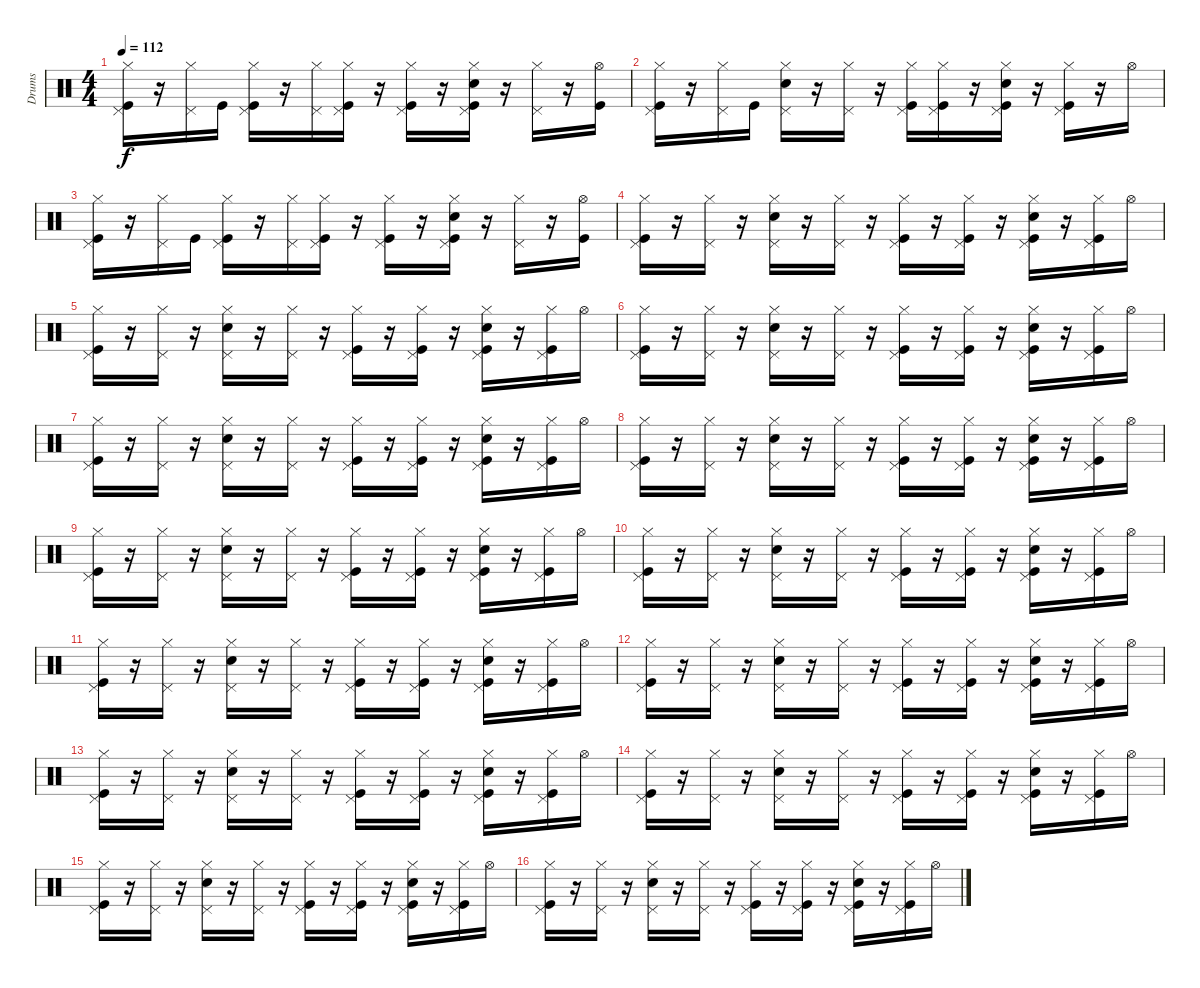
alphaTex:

\track ("Drums" "Drums") {instrument percussion}
\staff {score}
\articulation defaults
\ts (4 4)
\tempo 112
\clef neutral
\ks c
("Hi-Hat (closed)" "Pedal Hi-Hat (hit)" "Kick (hit)").16{dy f} r.16 ("Hi-Hat (closed)" "Pedal Hi-Hat (hit)").16 "Kick (hit)".16 ("Hi-Hat (closed)" "Pedal Hi-Hat (hit)" "Kick (hit)").16 r.16 ("Hi-Hat (closed)" "Pedal Hi-Hat (hit)").16 ("Hi-Hat (closed)" "Pedal Hi-Hat (hit)" "Kick (hit)").16 r.16 ("Hi-Hat (closed)" "Pedal Hi-Hat (hit)" "Kick (hit)").16 r.16 ("Hi-Hat (closed)" "Pedal Hi-Hat (hit)" "Kick (hit)" "Snare (hit) 2").16 r.16 ("Hi-Hat (closed)" "Pedal Hi-Hat (hit)").16 r.16 ("Hi-Hat (open)" "Kick (hit)").16 |
("Hi-Hat (closed)" "Pedal Hi-Hat (hit)" "Kick (hit)").16 r.16 ("Hi-Hat (closed)" "Pedal Hi-Hat (hit)").16 "Kick (hit)".16 ("Hi-Hat (closed)" "Pedal Hi-Hat (hit)" "Snare (hit) 2").16 r.16 ("Hi-Hat (closed)" "Pedal Hi-Hat (hit)").16 r.16 ("Pedal Hi-Hat (hit)" "Kick (hit)" "Hi-Hat (closed)").16 ("Hi-Hat (closed)" "Pedal Hi-Hat (hit)" "Kick (hit)").16 r.16 ("Pedal Hi-Hat (hit)" "Kick (hit)" "Snare (hit) 2" "Hi-Hat (closed)").16 r.16 ("Hi-Hat (closed)" "Kick (hit)" "Pedal Hi-Hat (hit)").16 r.16 "Hi-Hat (open)".16 |
("Hi-Hat (closed)" "Pedal Hi-Hat (hit)" "Kick (hit)").16 r.16 ("Hi-Hat (closed)" "Pedal Hi-Hat (hit)").16 "Kick (hit)".16 ("Hi-Hat (closed)" "Pedal Hi-Hat (hit)" "Kick (hit)").16 r.16 ("Hi-Hat (closed)" "Pedal Hi-Hat (hit)").16 ("Hi-Hat (closed)" "Pedal Hi-Hat (hit)" "Kick (hit)").16 r.16 ("Hi-Hat (closed)" "Pedal Hi-Hat (hit)" "Kick (hit)").16 r.16 ("Hi-Hat (closed)" "Pedal Hi-Hat (hit)" "Kick (hit)" "Snare (hit) 2").16 r.16 ("Hi-Hat (closed)" "Pedal Hi-Hat (hit)").16 r.16 ("Hi-Hat (open)" "Kick (hit)").16 |
("Hi-Hat (closed)" "Kick (hit)" "Pedal Hi-Hat (hit)").16 r.16 ("Pedal Hi-Hat (hit)" "Hi-Hat (closed)").16 r.16 ("Hi-Hat (closed)" "Pedal Hi-Hat (hit)" "Snare (hit) 2").16 r.16 ("Hi-Hat (closed)" "Pedal Hi-Hat (hit)").16 r.16 ("Hi-Hat (closed)" "Pedal Hi-Hat (hit)" "Kick (hit)").16 r.16 ("Hi-Hat (closed)" "Pedal Hi-Hat (hit)" "Kick (hit)").16 r.16 ("Hi-Hat (closed)" "Pedal Hi-Hat (hit)" "Kick (hit)" "Snare (hit) 2").16 r.16 ("Hi-Hat (closed)" "Kick (hit)" "Pedal Hi-Hat (hit)").16 "Hi-Hat (open)".16 |
("Hi-Hat (closed)" "Kick (hit)" "Pedal Hi-Hat (hit)").16 r.16 ("Pedal Hi-Hat (hit)" "Hi-Hat (closed)").16 r.16 ("Hi-Hat (closed)" "Pedal Hi-Hat (hit)" "Snare (hit) 2").16 r.16 ("Hi-Hat (closed)" "Pedal Hi-Hat (hit)").16 r.16 ("Hi-Hat (closed)" "Pedal Hi-Hat (hit)" "Kick (hit)").16 r.16 ("Hi-Hat (closed)" "Pedal Hi-Hat (hit)" "Kick (hit)").16 r.16 ("Hi-Hat (closed)" "Pedal Hi-Hat (hit)" "Kick (hit)" "Snare (hit) 2").16 r.16 ("Hi-Hat (closed)" "Kick (hit)" "Pedal Hi-Hat (hit)").16 "Hi-Hat (open)".16 |
("Hi-Hat (closed)" "Kick (hit)" "Pedal Hi-Hat (hit)").16 r.16 ("Pedal Hi-Hat (hit)" "Hi-Hat (closed)").16 r.16 ("Hi-Hat (closed)" "Pedal Hi-Hat (hit)" "Snare (hit) 2").16 r.16 ("Hi-Hat (closed)" "Pedal Hi-Hat (hit)").16 r.16 ("Hi-Hat (closed)" "Pedal Hi-Hat (hit)" "Kick (hit)").16 r.16 ("Hi-Hat (closed)" "Pedal Hi-Hat (hit)" "Kick (hit)").16 r.16 ("Hi-Hat (closed)" "Pedal Hi-Hat (hit)" "Kick (hit)" "Snare (hit) 2").16 r.16 ("Hi-Hat (closed)" "Kick (hit)" "Pedal Hi-Hat (hit)").16 "Hi-Hat (open)".16 |
("Hi-Hat (closed)" "Kick (hit)" "Pedal Hi-Hat (hit)").16 r.16 ("Pedal Hi-Hat (hit)" "Hi-Hat (closed)").16 r.16 ("Hi-Hat (closed)" "Pedal Hi-Hat (hit)" "Snare (hit) 2").16 r.16 ("Hi-Hat (closed)" "Pedal Hi-Hat (hit)").16 r.16 ("Hi-Hat (closed)" "Pedal Hi-Hat (hit)" "Kick (hit)").16 r.16 ("Hi-Hat (closed)" "Pedal Hi-Hat (hit)" "Kick (hit)").16 r.16 ("Hi-Hat (closed)" "Pedal Hi-Hat (hit)" "Kick (hit)" "Snare (hit) 2").16 r.16 ("Hi-Hat (closed)" "Kick (hit)" "Pedal Hi-Hat (hit)").16 "Hi-Hat (open)".16 |
("Hi-Hat (closed)" "Kick (hit)" "Pedal Hi-Hat (hit)").16 r.16 ("Pedal Hi-Hat (hit)" "Hi-Hat (closed)").16 r.16 ("Hi-Hat (closed)" "Pedal Hi-Hat (hit)" "Snare (hit) 2").16 r.16 ("Hi-Hat (closed)" "Pedal Hi-Hat (hit)").16 r.16 ("Hi-Hat (closed)" "Pedal Hi-Hat (hit)" "Kick (hit)").16 r.16 ("Hi-Hat (closed)" "Pedal Hi-Hat (hit)" "Kick (hit)").16 r.16 ("Hi-Hat (closed)" "Pedal Hi-Hat (hit)" "Kick (hit)" "Snare (hit) 2").16 r.16 ("Hi-Hat (closed)" "Kick (hit)" "Pedal Hi-Hat (hit)").16 "Hi-Hat (open)".16 |
("Hi-Hat (closed)" "Kick (hit)" "Pedal Hi-Hat (hit)").16 r.16 ("Pedal Hi-Hat (hit)" "Hi-Hat (closed)").16 r.16 ("Hi-Hat (closed)" "Pedal Hi-Hat (hit)" "Snare (hit) 2").16 r.16 ("Hi-Hat (closed)" "Pedal Hi-Hat (hit)").16 r.16 ("Hi-Hat (closed)" "Pedal Hi-Hat (hit)" "Kick (hit)").16 r.16 ("Hi-Hat (closed)" "Pedal Hi-Hat (hit)" "Kick (hit)").16 r.16 ("Hi-Hat (closed)" "Pedal Hi-Hat (hit)" "Kick (hit)" "Snare (hit) 2").16 r.16 ("Hi-Hat (closed)" "Kick (hit)" "Pedal Hi-Hat (hit)").16 "Hi-Hat (open)".16 |
("Hi-Hat (closed)" "Kick (hit)" "Pedal Hi-Hat (hit)").16 r.16 ("Pedal Hi-Hat (hit)" "Hi-Hat (closed)").16 r.16 ("Hi-Hat (closed)" "Pedal Hi-Hat (hit)" "Snare (hit) 2").16 r.16 ("Hi-Hat (closed)" "Pedal Hi-Hat (hit)").16 r.16 ("Hi-Hat (closed)" "Pedal Hi-Hat (hit)" "Kick (hit)").16 r.16 ("Hi-Hat (closed)" "Pedal Hi-Hat (hit)" "Kick (hit)").16 r.16 ("Hi-Hat (closed)" "Pedal Hi-Hat (hit)" "Kick (hit)" "Snare (hit) 2").16 r.16 ("Hi-Hat (closed)" "Kick (hit)" "Pedal Hi-Hat (hit)").16 "Hi-Hat (open)".16 |
("Hi-Hat (closed)" "Kick (hit)" "Pedal Hi-Hat (hit)").16 r.16 ("Pedal Hi-Hat (hit)" "Hi-Hat (closed)").16 r.16 ("Hi-Hat (closed)" "Pedal Hi-Hat (hit)" "Snare (hit) 2").16 r.16 ("Hi-Hat (closed)" "Pedal Hi-Hat (hit)").16 r.16 ("Hi-Hat (closed)" "Pedal Hi-Hat (hit)" "Kick (hit)").16 r.16 ("Hi-Hat (closed)" "Pedal Hi-Hat (hit)" "Kick (hit)").16 r.16 ("Hi-Hat (closed)" "Pedal Hi-Hat (hit)" "Kick (hit)" "Snare (hit) 2").16 r.16 ("Hi-Hat (closed)" "Kick (hit)" "Pedal Hi-Hat (hit)").16 "Hi-Hat (open)".16 |
("Hi-Hat (closed)" "Kick (hit)" "Pedal Hi-Hat (hit)").16 r.16 ("Pedal Hi-Hat (hit)" "Hi-Hat (closed)").16 r.16 ("Hi-Hat (closed)" "Pedal Hi-Hat (hit)" "Snare (hit) 2").16 r.16 ("Hi-Hat (closed)" "Pedal Hi-Hat (hit)").16 r.16 ("Hi-Hat (closed)" "Pedal Hi-Hat (hit)" "Kick (hit)").16 r.16 ("Hi-Hat (closed)" "Pedal Hi-Hat (hit)" "Kick (hit)").16 r.16 ("Hi-Hat (closed)" "Pedal Hi-Hat (hit)" "Kick (hit)" "Snare (hit) 2").16 r.16 ("Hi-Hat (closed)" "Kick (hit)" "Pedal Hi-Hat (hit)").16 "Hi-Hat (open)".16 |
("Hi-Hat (closed)" "Kick (hit)" "Pedal Hi-Hat (hit)").16 r.16 ("Pedal Hi-Hat (hit)" "Hi-Hat (closed)").16 r.16 ("Hi-Hat (closed)" "Pedal Hi-Hat (hit)" "Snare (hit) 2").16 r.16 ("Hi-Hat (closed)" "Pedal Hi-Hat (hit)").16 r.16 ("Hi-Hat (closed)" "Pedal Hi-Hat (hit)" "Kick (hit)").16 r.16 ("Hi-Hat (closed)" "Pedal Hi-Hat (hit)" "Kick (hit)").16 r.16 ("Hi-Hat (closed)" "Pedal Hi-Hat (hit)" "Kick (hit)" "Snare (hit) 2").16 r.16 ("Hi-Hat (closed)" "Kick (hit)" "Pedal Hi-Hat (hit)").16 "Hi-Hat (open)".16 |
("Hi-Hat (closed)" "Kick (hit)" "Pedal Hi-Hat (hit)").16 r.16 ("Pedal Hi-Hat (hit)" "Hi-Hat (closed)").16 r.16 ("Hi-Hat (closed)" "Pedal Hi-Hat (hit)" "Snare (hit) 2").16 r.16 ("Hi-Hat (closed)" "Pedal Hi-Hat (hit)").16 r.16 ("Hi-Hat (closed)" "Pedal Hi-Hat (hit)" "Kick (hit)").16 r.16 ("Hi-Hat (closed)" "Pedal Hi-Hat (hit)" "Kick (hit)").16 r.16 ("Hi-Hat (closed)" "Pedal Hi-Hat (hit)" "Kick (hit)" "Snare (hit) 2").16 r.16 ("Hi-Hat (closed)" "Kick (hit)" "Pedal Hi-Hat (hit)").16 "Hi-Hat (open)".16 |
("Hi-Hat (closed)" "Kick (hit)" "Pedal Hi-Hat (hit)").16 r.16 ("Pedal Hi-Hat (hit)" "Hi-Hat (closed)").16 r.16 ("Hi-Hat (closed)" "Pedal Hi-Hat (hit)" "Snare (hit) 2").16 r.16 ("Hi-Hat (closed)" "Pedal Hi-Hat (hit)").16 r.16 ("Hi-Hat (closed)" "Pedal Hi-Hat (hit)" "Kick (hit)").16 r.16 ("Hi-Hat (closed)" "Pedal Hi-Hat (hit)" "Kick (hit)").16 r.16 ("Hi-Hat (closed)" "Pedal Hi-Hat (hit)" "Kick (hit)" "Snare (hit) 2").16 r.16 ("Hi-Hat (closed)" "Kick (hit)" "Pedal Hi-Hat (hit)").16 "Hi-Hat (open)".16 |
("Hi-Hat (closed)" "Kick (hit)" "Pedal Hi-Hat (hit)").16 r.16 ("Pedal Hi-Hat (hit)" "Hi-Hat (closed)").16 r.16 ("Hi-Hat (closed)" "Pedal Hi-Hat (hit)" "Snare (hit) 2").16 r.16 ("Hi-Hat (closed)" "Pedal Hi-Hat (hit)").16 r.16 ("Hi-Hat (closed)" "Pedal Hi-Hat (hit)" "Kick (hit)").16 r.16 ("Hi-Hat (closed)" "Pedal Hi-Hat (hit)" "Kick (hit)").16 r.16 ("Hi-Hat (closed)" "Pedal Hi-Hat (hit)" "Kick (hit)" "Snare (hit) 2").16 r.16 ("Hi-Hat (closed)" "Kick (hit)" "Pedal Hi-Hat (hit)").16 "Hi-Hat (open)".16
